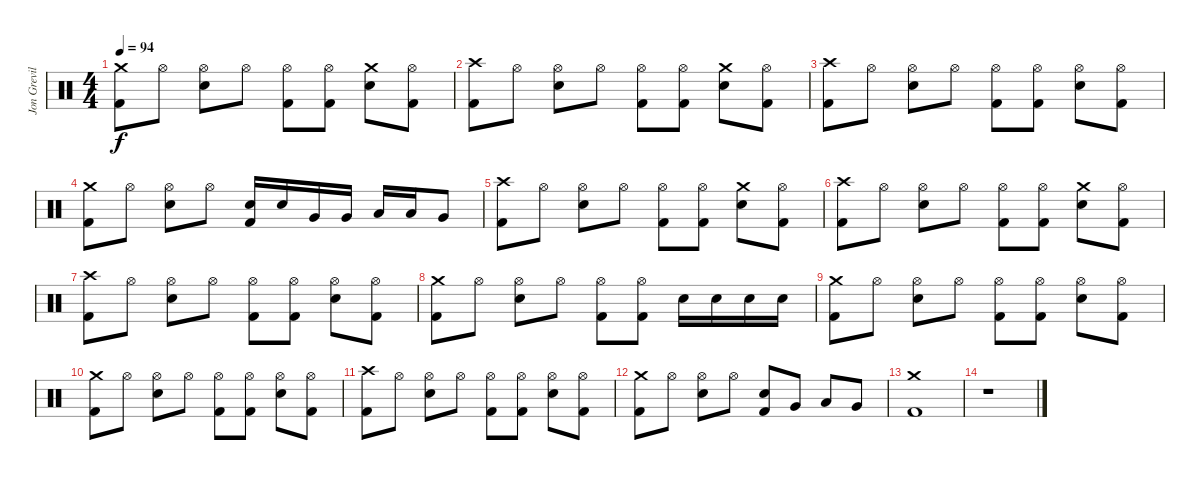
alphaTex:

\track ("Jon Greville (Drums)" "Jon Grevil") {instrument percussion}
\staff {score}
\articulation defaults
\ts (4 4)
\tempo 94
\clef neutral
\ks c
("Crash medium (hit)" "Kick (hit) 2").8{dy f} "Hi-Hat (open)".8 ("Hi-Hat (open)" "Electric Snare (hit)").8 "Hi-Hat (open)".8 ("Hi-Hat (open)" "Kick (hit) 2").8 ("Hi-Hat (open)" "Kick (hit) 2").8 ("Crash medium (hit)" "Electric Snare (hit)").8 ("Hi-Hat (open)" "Kick (hit) 2").8 |
("Crash high (hit)" "Kick (hit) 2").8 "Hi-Hat (open)".8 ("Hi-Hat (open)" "Electric Snare (hit)").8 "Hi-Hat (open)".8 ("Hi-Hat (open)" "Kick (hit) 2").8 ("Hi-Hat (open)" "Kick (hit) 2").8 ("Crash medium (hit)" "Electric Snare (hit)").8 ("Hi-Hat (open)" "Kick (hit) 2").8 |
("Crash high (hit)" "Kick (hit) 2").8 "Hi-Hat (open)".8 ("Hi-Hat (open)" "Electric Snare (hit)").8 "Hi-Hat (open)".8 ("Hi-Hat (open)" "Kick (hit) 2").8 ("Hi-Hat (open)" "Kick (hit) 2").8 ("Hi-Hat (open)" "Electric Snare (hit)").8 ("Hi-Hat (open)" "Kick (hit) 2").8 |
("Crash medium (hit)" "Kick (hit) 2").8 "Hi-Hat (open)".8 ("Hi-Hat (open)" "Electric Snare (hit)").8 "Hi-Hat (open)".8 ("Electric Snare (hit)" "Kick (hit) 2").16 "Electric Snare (hit)".16 "Very Low Tom (hit)".16 "Very Low Tom (hit)".16 "Low Tom (hit)".16 "Low Tom (hit)".16 "Very Low Tom (hit)".8 |
("Crash high (hit)" "Kick (hit) 2").8 "Hi-Hat (open)".8 ("Hi-Hat (open)" "Electric Snare (hit)").8 "Hi-Hat (open)".8 ("Hi-Hat (open)" "Kick (hit) 2").8 ("Hi-Hat (open)" "Kick (hit) 2").8 ("Crash medium (hit)" "Electric Snare (hit)").8 ("Hi-Hat (open)" "Kick (hit) 2").8 |
("Crash high (hit)" "Kick (hit) 2").8 "Hi-Hat (open)".8 ("Hi-Hat (open)" "Electric Snare (hit)").8 "Hi-Hat (open)".8 ("Hi-Hat (open)" "Kick (hit) 2").8 ("Hi-Hat (open)" "Kick (hit) 2").8 ("Crash medium (hit)" "Electric Snare (hit)").8 ("Hi-Hat (open)" "Kick (hit) 2").8 |
("Crash high (hit)" "Kick (hit) 2").8 "Hi-Hat (open)".8 ("Hi-Hat (open)" "Electric Snare (hit)").8 "Hi-Hat (open)".8 ("Hi-Hat (open)" "Kick (hit) 2").8 ("Hi-Hat (open)" "Kick (hit) 2").8 ("Hi-Hat (open)" "Electric Snare (hit)").8 ("Hi-Hat (open)" "Kick (hit) 2").8 |
("Crash medium (hit)" "Kick (hit) 2").8 "Hi-Hat (open)".8 ("Hi-Hat (open)" "Electric Snare (hit)").8 "Hi-Hat (open)".8 ("Hi-Hat (open)" "Kick (hit) 2").8 ("Hi-Hat (open)" "Kick (hit) 2").8 "Electric Snare (hit)".16 "Electric Snare (hit)".16 "Electric Snare (hit)".16 "Electric Snare (hit)".16 |
("Crash medium (hit)" "Kick (hit) 2").8 "Hi-Hat (open)".8 ("Hi-Hat (open)" "Electric Snare (hit)").8 "Hi-Hat (open)".8 ("Hi-Hat (open)" "Kick (hit) 2").8 ("Hi-Hat (open)" "Kick (hit) 2").8 ("Hi-Hat (open)" "Electric Snare (hit)").8 ("Hi-Hat (open)" "Kick (hit) 2").8 |
("Crash medium (hit)" "Kick (hit) 2").8 "Hi-Hat (open)".8 ("Hi-Hat (open)" "Electric Snare (hit)").8 "Hi-Hat (open)".8 ("Hi-Hat (open)" "Kick (hit) 2").8 ("Hi-Hat (open)" "Kick (hit) 2").8 ("Hi-Hat (open)" "Electric Snare (hit)").8 ("Hi-Hat (open)" "Kick (hit) 2").8 |
("Crash high (hit)" "Kick (hit) 2").8 "Hi-Hat (open)".8 ("Hi-Hat (open)" "Electric Snare (hit)").8 "Hi-Hat (open)".8 ("Hi-Hat (open)" "Kick (hit) 2").8 ("Hi-Hat (open)" "Kick (hit) 2").8 ("Hi-Hat (open)" "Electric Snare (hit)").8 ("Hi-Hat (open)" "Kick (hit) 2").8 |
("Crash medium (hit)" "Kick (hit) 2").8 "Hi-Hat (open)".8 ("Hi-Hat (open)" "Electric Snare (hit)").8 "Hi-Hat (open)".8 ("Electric Snare (hit)" "Kick (hit) 2").8 "Very Low Tom (hit)".8 "Low Tom (hit)".8 "Very Low Tom (hit)".8 |
("Crash medium (hit)" "Kick (hit) 2").1 |
r.1
